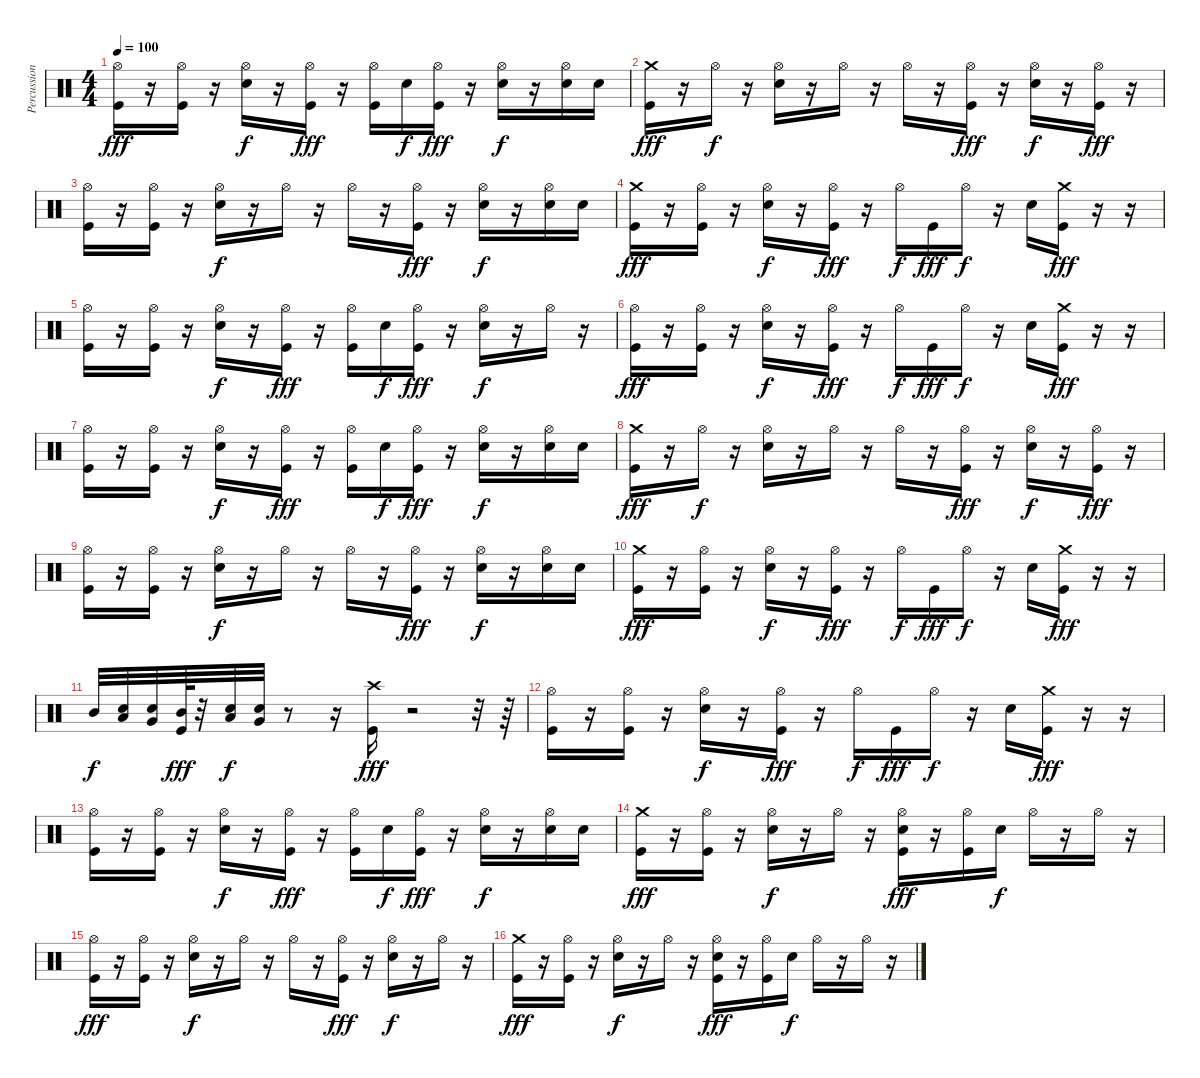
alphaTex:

\track ("Percussion" "Percussion") {instrument percussion}
\staff {score}
\articulation defaults
\ts (4 4)
\tempo 100
\clef neutral
\ks c
("Hi-Hat (open)" "Kick (hit)").16{dy fff} r.16 ("Hi-Hat (open)" "Kick (hit)").16 r.16 ("Hi-Hat (open)" "Electric Snare (hit)").16{dy f} r.16 ("Hi-Hat (open)" "Kick (hit)").16{dy fff} r.16 ("Hi-Hat (open)" "Kick (hit)").16 "Electric Snare (hit)".16{dy f} ("Hi-Hat (open)" "Kick (hit)").16{dy fff} r.16 ("Hi-Hat (open)" "Electric Snare (hit)").16{dy f} r.16 ("Hi-Hat (open)" "Electric Snare (hit)").16 "Electric Snare (hit)".16 |
("Crash medium (hit)" "Kick (hit)").16{dy fff} r.16 "Hi-Hat (open)".16{dy f} r.16 ("Hi-Hat (open)" "Electric Snare (hit)").16 r.16 "Hi-Hat (open)".16 r.16 "Hi-Hat (open)".16 r.16 ("Hi-Hat (open)" "Kick (hit)").16{dy fff} r.16 ("Hi-Hat (open)" "Electric Snare (hit)").16{dy f} r.16 ("Hi-Hat (open)" "Kick (hit)").16{dy fff} r.16 |
("Hi-Hat (open)" "Kick (hit)").16 r.16 ("Hi-Hat (open)" "Kick (hit)").16 r.16 ("Hi-Hat (open)" "Electric Snare (hit)").16{dy f} r.16 "Hi-Hat (open)".16 r.16 "Hi-Hat (open)".16 r.16 ("Hi-Hat (open)" "Kick (hit)").16{dy fff} r.16 ("Hi-Hat (open)" "Electric Snare (hit)").16{dy f} r.16 ("Hi-Hat (open)" "Electric Snare (hit)").16 "Electric Snare (hit)".16 |
("Crash medium (hit)" "Kick (hit)").16{dy fff} r.16 ("Hi-Hat (open)" "Kick (hit)").16 r.16 ("Hi-Hat (open)" "Electric Snare (hit)").16{dy f} r.16 ("Hi-Hat (open)" "Kick (hit)").16{dy fff} r.16 "Hi-Hat (open)".16{dy f} "Kick (hit)".16{dy fff} "Hi-Hat (open)".16{dy f} r.16 "Electric Snare (hit)".16 ("Crash medium (hit)" "Kick (hit)").16{dy fff} r.16 r.16 |
("Hi-Hat (open)" "Kick (hit)").16 r.16 ("Hi-Hat (open)" "Kick (hit)").16 r.16 ("Hi-Hat (open)" "Electric Snare (hit)").16{dy f} r.16 ("Hi-Hat (open)" "Kick (hit)").16{dy fff} r.16 ("Hi-Hat (open)" "Kick (hit)").16 "Electric Snare (hit)".16{dy f} ("Hi-Hat (open)" "Kick (hit)").16{dy fff} r.16 ("Hi-Hat (open)" "Electric Snare (hit)").16{dy f} r.16 "Hi-Hat (open)".16 r.16 |
("Hi-Hat (open)" "Kick (hit)").16{dy fff} r.16 ("Hi-Hat (open)" "Kick (hit)").16 r.16 ("Hi-Hat (open)" "Electric Snare (hit)").16{dy f} r.16 ("Hi-Hat (open)" "Kick (hit)").16{dy fff} r.16 "Hi-Hat (open)".16{dy f} "Kick (hit)".16{dy fff} "Hi-Hat (open)".16{dy f} r.16 "Electric Snare (hit)".16 ("Crash medium (hit)" "Kick (hit)").16{dy fff} r.16 r.16 |
("Hi-Hat (open)" "Kick (hit)").16 r.16 ("Hi-Hat (open)" "Kick (hit)").16 r.16 ("Hi-Hat (open)" "Electric Snare (hit)").16{dy f} r.16 ("Hi-Hat (open)" "Kick (hit)").16{dy fff} r.16 ("Hi-Hat (open)" "Kick (hit)").16 "Electric Snare (hit)".16{dy f} ("Hi-Hat (open)" "Kick (hit)").16{dy fff} r.16 ("Hi-Hat (open)" "Electric Snare (hit)").16{dy f} r.16 ("Hi-Hat (open)" "Electric Snare (hit)").16 "Electric Snare (hit)".16 |
("Crash medium (hit)" "Kick (hit)").16{dy fff} r.16 "Hi-Hat (open)".16{dy f} r.16 ("Hi-Hat (open)" "Electric Snare (hit)").16 r.16 "Hi-Hat (open)".16 r.16 "Hi-Hat (open)".16 r.16 ("Hi-Hat (open)" "Kick (hit)").16{dy fff} r.16 ("Hi-Hat (open)" "Electric Snare (hit)").16{dy f} r.16 ("Hi-Hat (open)" "Kick (hit)").16{dy fff} r.16 |
("Hi-Hat (open)" "Kick (hit)").16 r.16 ("Hi-Hat (open)" "Kick (hit)").16 r.16 ("Hi-Hat (open)" "Electric Snare (hit)").16{dy f} r.16 "Hi-Hat (open)".16 r.16 "Hi-Hat (open)".16 r.16 ("Hi-Hat (open)" "Kick (hit)").16{dy fff} r.16 ("Hi-Hat (open)" "Electric Snare (hit)").16{dy f} r.16 ("Hi-Hat (open)" "Electric Snare (hit)").16 "Electric Snare (hit)".16 |
("Crash medium (hit)" "Kick (hit)").16{dy fff} r.16 ("Hi-Hat (open)" "Kick (hit)").16 r.16 ("Hi-Hat (open)" "Electric Snare (hit)").16{dy f} r.16 ("Hi-Hat (open)" "Kick (hit)").16{dy fff} r.16 "Hi-Hat (open)".16{dy f} "Kick (hit)".16{dy fff} "Hi-Hat (open)".16{dy f} r.16 "Electric Snare (hit)".16 ("Crash medium (hit)" "Kick (hit)").16{dy fff} r.16 r.16 |
"Mid Tom (hit)".32{dy f} ("Low Tom (hit)" "Electric Snare (hit)").32 ("Very Low Tom (hit)" "Electric Snare (hit)").32 ("Mid Tom (hit)" "Kick (hit)").64{dy fff} r.32 ("Low Tom (hit)" "Electric Snare (hit)").32{dy f} ("Very Low Tom (hit)" "Electric Snare (hit)").32 r.8 r.16 ("Crash high (hit)" "Kick (hit)").16{dy fff} r.2 r.32 r.64 |
("Hi-Hat (open)" "Kick (hit)").16 r.16 ("Hi-Hat (open)" "Kick (hit)").16 r.16 ("Hi-Hat (open)" "Electric Snare (hit)").16{dy f} r.16 ("Hi-Hat (open)" "Kick (hit)").16{dy fff} r.16 "Hi-Hat (open)".16{dy f} "Kick (hit)".16{dy fff} "Hi-Hat (open)".16{dy f} r.16 "Electric Snare (hit)".16 ("Crash medium (hit)" "Kick (hit)").16{dy fff} r.16 r.16 |
("Hi-Hat (open)" "Kick (hit)").16 r.16 ("Hi-Hat (open)" "Kick (hit)").16 r.16 ("Hi-Hat (open)" "Electric Snare (hit)").16{dy f} r.16 ("Hi-Hat (open)" "Kick (hit)").16{dy fff} r.16 ("Hi-Hat (open)" "Kick (hit)").16 "Electric Snare (hit)".16{dy f} ("Hi-Hat (open)" "Kick (hit)").16{dy fff} r.16 ("Hi-Hat (open)" "Electric Snare (hit)").16{dy f} r.16 ("Hi-Hat (open)" "Electric Snare (hit)").16 "Electric Snare (hit)".16 |
("Crash medium (hit)" "Kick (hit)").16{dy fff} r.16 ("Hi-Hat (open)" "Kick (hit)").16 r.16 ("Hi-Hat (open)" "Electric Snare (hit)").16{dy f} r.16 "Hi-Hat (open)".16 r.16 ("Hi-Hat (open)" "Electric Snare (hit)" "Kick (hit)").16{dy fff} r.16 ("Hi-Hat (open)" "Kick (hit)").16 "Electric Snare (hit)".16{dy f} "Hi-Hat (open)".16 r.16 "Hi-Hat (open)".16 r.16 |
("Hi-Hat (open)" "Kick (hit)").16{dy fff} r.16 ("Hi-Hat (open)" "Kick (hit)").16 r.16 ("Hi-Hat (open)" "Electric Snare (hit)").16{dy f} r.16 "Hi-Hat (open)".16 r.16 "Hi-Hat (open)".16 r.16 ("Hi-Hat (open)" "Kick (hit)").16{dy fff} r.16 ("Hi-Hat (open)" "Electric Snare (hit)").16{dy f} r.16 "Hi-Hat (open)".16 r.16 |
("Crash medium (hit)" "Kick (hit)").16{dy fff} r.16 ("Hi-Hat (open)" "Kick (hit)").16 r.16 ("Hi-Hat (open)" "Electric Snare (hit)").16{dy f} r.16 "Hi-Hat (open)".16 r.16 ("Hi-Hat (open)" "Electric Snare (hit)" "Kick (hit)").16{dy fff} r.16 ("Hi-Hat (open)" "Kick (hit)").16 "Electric Snare (hit)".16{dy f} "Hi-Hat (open)".16 r.16 "Hi-Hat (open)".16 r.16
